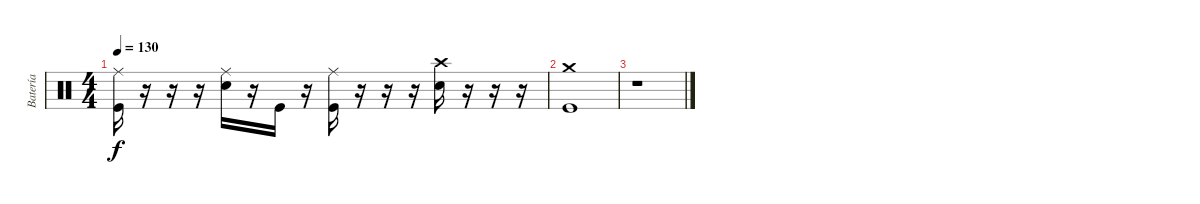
\track ("Batería" "Batería") {instrument percussion}
\staff {score}
\articulation defaults
\ts (4 4)
\tempo 130
\clef neutral
\ks c
("Ride (middle)" "Kick (hit)").16{dy f} r.16 r.16 r.16 ("Ride (middle)" "Snare (hit) 2").16 r.16 "Kick (hit)".16 r.16 ("Ride (middle)" "Kick (hit)").16 r.16 r.16 r.16 ("Crash high (hit)" "Snare (hit) 2").16 r.16 r.16 r.16 |
("Crash medium (hit)" "Kick (hit)").1 |
r.1
